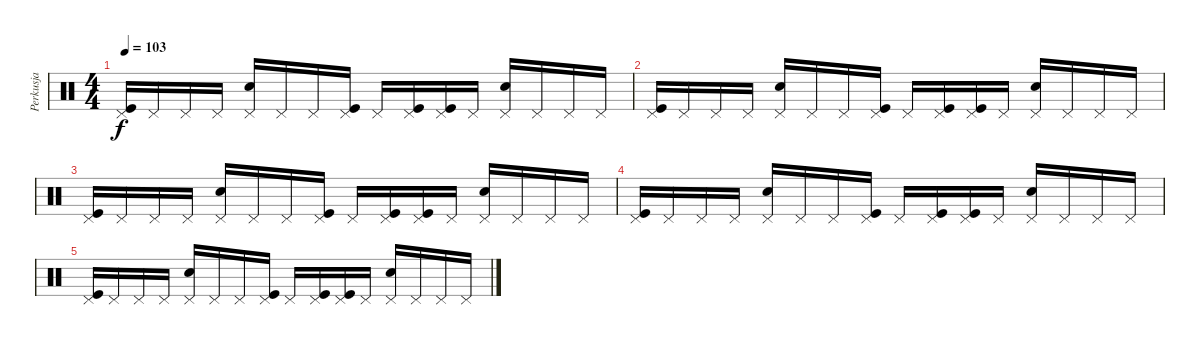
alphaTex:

\track ("Perkusja" "Perkusja") {instrument percussion}
\staff {score}
\articulation defaults
\ts (4 4)
\tempo 103
\clef neutral
\ks c
("Pedal Hi-Hat (hit)" "Kick (hit)").16{dy f} "Pedal Hi-Hat (hit)".16 "Pedal Hi-Hat (hit)".16 "Pedal Hi-Hat (hit)".16 ("Pedal Hi-Hat (hit)" "Snare (hit) 2").16 "Pedal Hi-Hat (hit)".16 "Pedal Hi-Hat (hit)".16 ("Pedal Hi-Hat (hit)" "Kick (hit)").16 "Pedal Hi-Hat (hit)".16 ("Pedal Hi-Hat (hit)" "Kick (hit)").16 ("Pedal Hi-Hat (hit)" "Kick (hit)").16 "Pedal Hi-Hat (hit)".16 ("Pedal Hi-Hat (hit)" "Snare (hit) 2").16 "Pedal Hi-Hat (hit)".16 "Pedal Hi-Hat (hit)".16 "Pedal Hi-Hat (hit)".16 |
("Pedal Hi-Hat (hit)" "Kick (hit)").16 "Pedal Hi-Hat (hit)".16 "Pedal Hi-Hat (hit)".16 "Pedal Hi-Hat (hit)".16 ("Pedal Hi-Hat (hit)" "Snare (hit) 2").16 "Pedal Hi-Hat (hit)".16 "Pedal Hi-Hat (hit)".16 ("Pedal Hi-Hat (hit)" "Kick (hit)").16 "Pedal Hi-Hat (hit)".16 ("Pedal Hi-Hat (hit)" "Kick (hit)").16 ("Pedal Hi-Hat (hit)" "Kick (hit)").16 "Pedal Hi-Hat (hit)".16 ("Pedal Hi-Hat (hit)" "Snare (hit) 2").16 "Pedal Hi-Hat (hit)".16 "Pedal Hi-Hat (hit)".16 "Pedal Hi-Hat (hit)".16 |
("Pedal Hi-Hat (hit)" "Kick (hit)").16 "Pedal Hi-Hat (hit)".16 "Pedal Hi-Hat (hit)".16 "Pedal Hi-Hat (hit)".16 ("Pedal Hi-Hat (hit)" "Snare (hit) 2").16 "Pedal Hi-Hat (hit)".16 "Pedal Hi-Hat (hit)".16 ("Pedal Hi-Hat (hit)" "Kick (hit)").16 "Pedal Hi-Hat (hit)".16 ("Pedal Hi-Hat (hit)" "Kick (hit)").16 ("Pedal Hi-Hat (hit)" "Kick (hit)").16 "Pedal Hi-Hat (hit)".16 ("Pedal Hi-Hat (hit)" "Snare (hit) 2").16 "Pedal Hi-Hat (hit)".16 "Pedal Hi-Hat (hit)".16 "Pedal Hi-Hat (hit)".16 |
("Pedal Hi-Hat (hit)" "Kick (hit)").16 "Pedal Hi-Hat (hit)".16 "Pedal Hi-Hat (hit)".16 "Pedal Hi-Hat (hit)".16 ("Pedal Hi-Hat (hit)" "Snare (hit) 2").16 "Pedal Hi-Hat (hit)".16 "Pedal Hi-Hat (hit)".16 ("Pedal Hi-Hat (hit)" "Kick (hit)").16 "Pedal Hi-Hat (hit)".16 ("Pedal Hi-Hat (hit)" "Kick (hit)").16 ("Pedal Hi-Hat (hit)" "Kick (hit)").16 "Pedal Hi-Hat (hit)".16 ("Pedal Hi-Hat (hit)" "Snare (hit) 2").16 "Pedal Hi-Hat (hit)".16 "Pedal Hi-Hat (hit)".16 "Pedal Hi-Hat (hit)".16 |
("Pedal Hi-Hat (hit)" "Kick (hit)").16 "Pedal Hi-Hat (hit)".16 "Pedal Hi-Hat (hit)".16 "Pedal Hi-Hat (hit)".16 ("Pedal Hi-Hat (hit)" "Snare (hit) 2").16 "Pedal Hi-Hat (hit)".16 "Pedal Hi-Hat (hit)".16 ("Pedal Hi-Hat (hit)" "Kick (hit)").16 "Pedal Hi-Hat (hit)".16 ("Pedal Hi-Hat (hit)" "Kick (hit)").16 ("Pedal Hi-Hat (hit)" "Kick (hit)").16 "Pedal Hi-Hat (hit)".16 ("Pedal Hi-Hat (hit)" "Snare (hit) 2").16 "Pedal Hi-Hat (hit)".16 "Pedal Hi-Hat (hit)".16 "Pedal Hi-Hat (hit)".16
